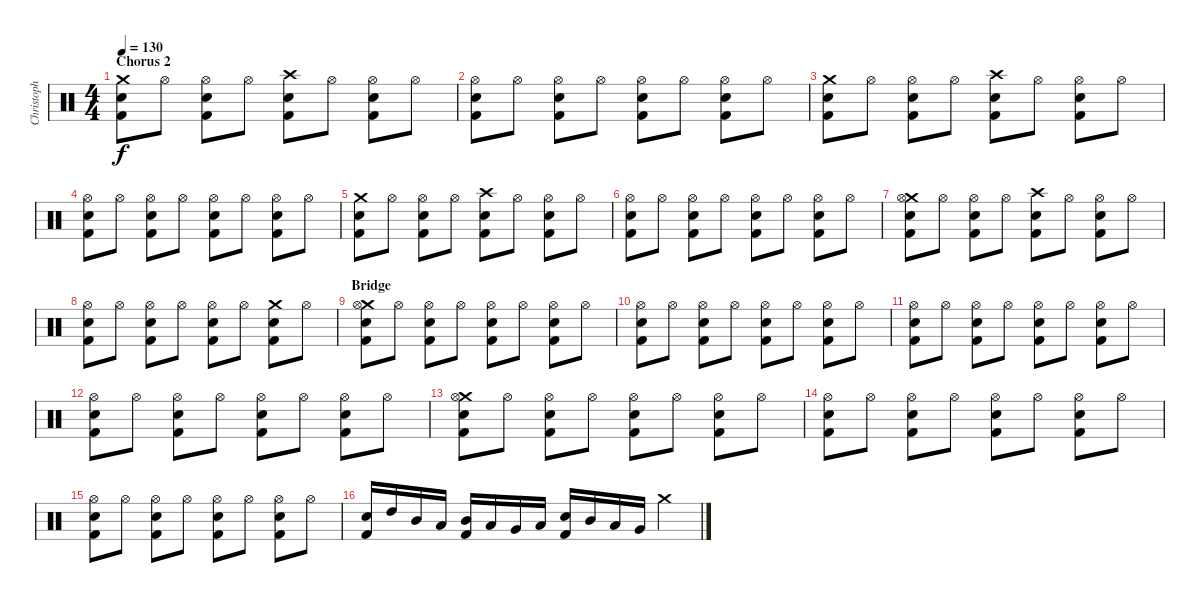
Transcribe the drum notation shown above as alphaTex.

\track ("Christoph Schneider" "Christoph ") {instrument percussion}
\staff {score}
\articulation defaults
\ts (4 4)
\section ("" "Chorus 2")
\tempo 130
\clef neutral
\ks c
("Crash medium (hit)" "Snare (hit) 2" "Kick (hit) 2").8{dy f} "Hi-Hat (open)".8 ("Hi-Hat (open)" "Snare (hit) 2" "Kick (hit) 2").8 "Hi-Hat (open)".8 ("Crash high (hit)" "Snare (hit) 2" "Kick (hit) 2").8 "Hi-Hat (open)".8 ("Hi-Hat (open)" "Snare (hit) 2" "Kick (hit) 2").8 "Hi-Hat (open)".8 |
("Hi-Hat (open)" "Snare (hit) 2" "Kick (hit) 2").8 "Hi-Hat (open)".8 ("Hi-Hat (open)" "Snare (hit) 2" "Kick (hit) 2").8 "Hi-Hat (open)".8 ("Hi-Hat (open)" "Snare (hit) 2" "Kick (hit) 2").8 "Hi-Hat (open)".8 ("Hi-Hat (open)" "Snare (hit) 2" "Kick (hit) 2").8 "Hi-Hat (open)".8 |
("Crash medium (hit)" "Snare (hit) 2" "Kick (hit) 2").8 "Hi-Hat (open)".8 ("Hi-Hat (open)" "Snare (hit) 2" "Kick (hit) 2").8 "Hi-Hat (open)".8 ("Crash high (hit)" "Snare (hit) 2" "Kick (hit) 2").8 "Hi-Hat (open)".8 ("Hi-Hat (open)" "Snare (hit) 2" "Kick (hit) 2").8 "Hi-Hat (open)".8 |
("Hi-Hat (open)" "Snare (hit) 2" "Kick (hit) 2").8 "Hi-Hat (open)".8 ("Hi-Hat (open)" "Snare (hit) 2" "Kick (hit) 2").8 "Hi-Hat (open)".8 ("Hi-Hat (open)" "Snare (hit) 2" "Kick (hit) 2").8 "Hi-Hat (open)".8 ("Hi-Hat (open)" "Snare (hit) 2" "Kick (hit) 2").8 "Hi-Hat (open)".8 |
("Crash medium (hit)" "Snare (hit) 2" "Kick (hit) 2").8 "Hi-Hat (open)".8 ("Hi-Hat (open)" "Snare (hit) 2" "Kick (hit) 2").8 "Hi-Hat (open)".8 ("Crash high (hit)" "Snare (hit) 2" "Kick (hit) 2").8 "Hi-Hat (open)".8 ("Hi-Hat (open)" "Snare (hit) 2" "Kick (hit) 2").8 "Hi-Hat (open)".8 |
("Hi-Hat (open)" "Snare (hit) 2" "Kick (hit) 2").8 "Hi-Hat (open)".8 ("Hi-Hat (open)" "Snare (hit) 2" "Kick (hit) 2").8 "Hi-Hat (open)".8 ("Hi-Hat (open)" "Snare (hit) 2" "Kick (hit) 2").8 "Hi-Hat (open)".8 ("Hi-Hat (open)" "Snare (hit) 2" "Kick (hit) 2").8 "Hi-Hat (open)".8 |
("Crash medium (hit)" "Hi-Hat (open)" "Snare (hit) 2" "Kick (hit) 2").8 "Hi-Hat (open)".8 ("Hi-Hat (open)" "Snare (hit) 2" "Kick (hit) 2").8 "Hi-Hat (open)".8 ("Crash high (hit)" "Snare (hit) 2" "Kick (hit) 2").8 "Hi-Hat (open)".8 ("Hi-Hat (open)" "Snare (hit) 2" "Kick (hit) 2").8 "Hi-Hat (open)".8 |
("Hi-Hat (open)" "Snare (hit) 2" "Kick (hit) 2").8 "Hi-Hat (open)".8 ("Hi-Hat (open)" "Snare (hit) 2" "Kick (hit) 2").8 "Hi-Hat (open)".8 ("Hi-Hat (open)" "Snare (hit) 2" "Kick (hit) 2").8 "Hi-Hat (open)".8 ("Crash medium (hit)" "Snare (hit) 2" "Kick (hit) 2").8 "Hi-Hat (open)".8 |
\section ("" "Bridge")
("Crash medium (hit)" "Hi-Hat (open)" "Snare (hit) 2" "Kick (hit) 2").8 "Hi-Hat (open)".8 ("Hi-Hat (open)" "Snare (hit) 2" "Kick (hit) 2").8 "Hi-Hat (open)".8 ("Hi-Hat (open)" "Snare (hit) 2" "Kick (hit) 2").8 "Hi-Hat (open)".8 ("Hi-Hat (open)" "Snare (hit) 2" "Kick (hit) 2").8 "Hi-Hat (open)".8 |
("Hi-Hat (open)" "Snare (hit) 2" "Kick (hit) 2").8 "Hi-Hat (open)".8 ("Hi-Hat (open)" "Snare (hit) 2" "Kick (hit) 2").8 "Hi-Hat (open)".8 ("Hi-Hat (open)" "Snare (hit) 2" "Kick (hit) 2").8 "Hi-Hat (open)".8 ("Hi-Hat (open)" "Snare (hit) 2" "Kick (hit) 2").8 "Hi-Hat (open)".8 |
("Hi-Hat (open)" "Snare (hit) 2" "Kick (hit) 2").8 "Hi-Hat (open)".8 ("Hi-Hat (open)" "Snare (hit) 2" "Kick (hit) 2").8 "Hi-Hat (open)".8 ("Hi-Hat (open)" "Snare (hit) 2" "Kick (hit) 2").8 "Hi-Hat (open)".8 ("Hi-Hat (open)" "Snare (hit) 2" "Kick (hit) 2").8 "Hi-Hat (open)".8 |
("Hi-Hat (open)" "Snare (hit) 2" "Kick (hit) 2").8 "Hi-Hat (open)".8 ("Hi-Hat (open)" "Snare (hit) 2" "Kick (hit) 2").8 "Hi-Hat (open)".8 ("Hi-Hat (open)" "Snare (hit) 2" "Kick (hit) 2").8 "Hi-Hat (open)".8 ("Hi-Hat (open)" "Snare (hit) 2" "Kick (hit) 2").8 "Hi-Hat (open)".8 |
("Crash medium (hit)" "Hi-Hat (open)" "Snare (hit) 2" "Kick (hit) 2").8 "Hi-Hat (open)".8 ("Hi-Hat (open)" "Snare (hit) 2" "Kick (hit) 2").8 "Hi-Hat (open)".8 ("Hi-Hat (open)" "Snare (hit) 2" "Kick (hit) 2").8 "Hi-Hat (open)".8 ("Hi-Hat (open)" "Snare (hit) 2" "Kick (hit) 2").8 "Hi-Hat (open)".8 |
("Hi-Hat (open)" "Snare (hit) 2" "Kick (hit) 2").8 "Hi-Hat (open)".8 ("Hi-Hat (open)" "Snare (hit) 2" "Kick (hit) 2").8 "Hi-Hat (open)".8 ("Hi-Hat (open)" "Snare (hit) 2" "Kick (hit) 2").8 "Hi-Hat (open)".8 ("Hi-Hat (open)" "Snare (hit) 2" "Kick (hit) 2").8 "Hi-Hat (open)".8 |
("Hi-Hat (open)" "Snare (hit) 2" "Kick (hit) 2").8 "Hi-Hat (open)".8 ("Hi-Hat (open)" "Snare (hit) 2" "Kick (hit) 2").8 "Hi-Hat (open)".8 ("Hi-Hat (open)" "Snare (hit) 2" "Kick (hit) 2").8 "Hi-Hat (open)".8 ("Hi-Hat (open)" "Snare (hit) 2" "Kick (hit) 2").8 "Hi-Hat (open)".8 |
("Snare (hit) 2" "Kick (hit) 2").16 "High Tom (hit)".16 "Mid Tom (hit)".16 "Low Tom (hit)".16 ("Mid Tom (hit)" "Kick (hit) 2").16 "Low Tom (hit)".16 "Very Low Tom (hit)".16 "Low Floor Tom (hit)".16 ("Snare (hit) 2" "Kick (hit) 2").16 "Mid Tom (hit)".16 "Low Tom (hit)".16 "Very Low Tom (hit)".16 "Crash medium (hit)".4
